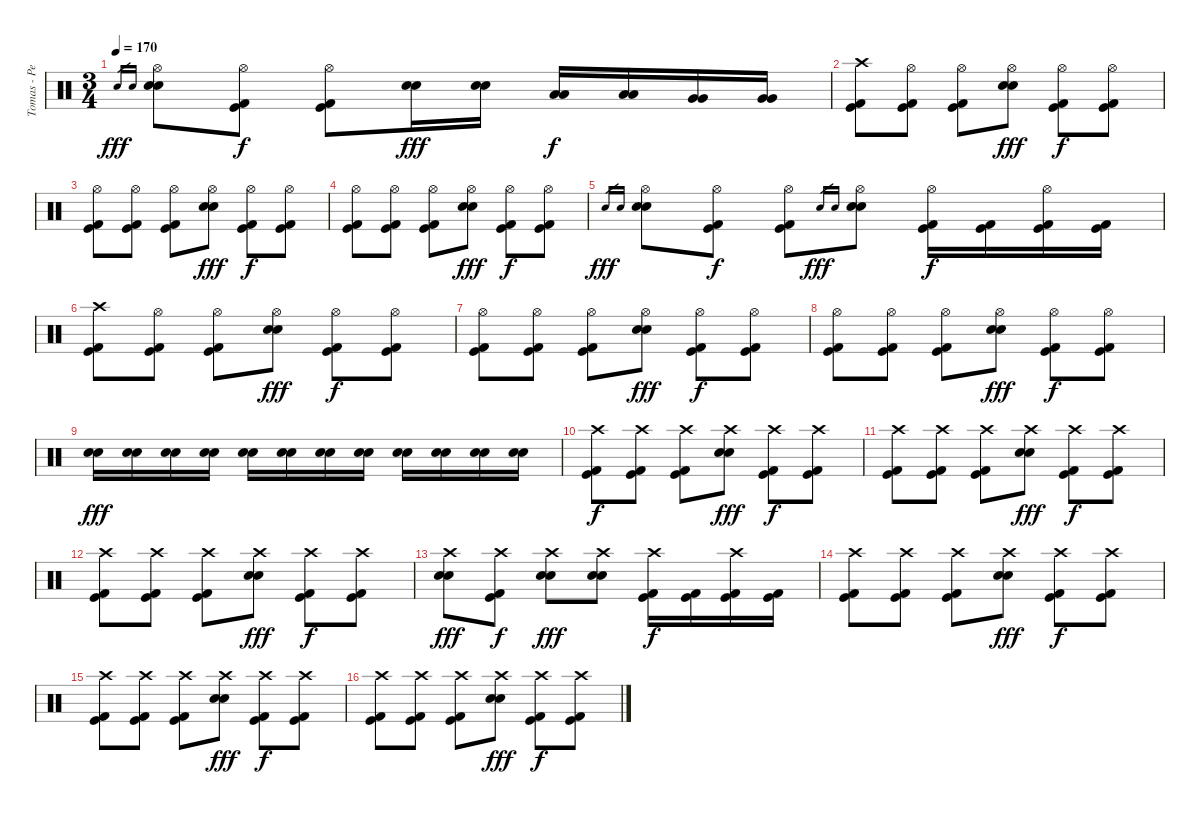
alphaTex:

\track ("Tomas - Percussions" "Tomas - Pe") {instrument percussion}
\staff {score}
\articulation defaults
\ts (3 4)
\tempo 170
\clef neutral
\ks c "Electric Snare (hit)".16{gr dy fff} "Electric Snare (hit)".16{gr}
("Hi-Hat (open)" "Electric Snare (hit)" "Electric Snare (hit)").8 ("Hi-Hat (open)" "Kick (hit)" "Kick (hit) 2").8{dy f} ("Hi-Hat (open)" "Kick (hit)" "Kick (hit) 2").8 ("Electric Snare (hit)" "Electric Snare (hit)").16{dy fff} ("Electric Snare (hit)" "Electric Snare (hit)").16 ("Low Tom (hit)" "Low Tom (hit)").16{dy f} ("Low Tom (hit)" "Low Tom (hit)").16 ("Very Low Tom (hit)" "Very Low Tom (hit)").16 ("Very Low Tom (hit)" "Very Low Tom (hit)").16 |
("Crash high (hit)" "Kick (hit)" "Kick (hit) 2").8 ("Hi-Hat (open)" "Kick (hit)" "Kick (hit) 2").8 ("Hi-Hat (open)" "Kick (hit)" "Kick (hit) 2").8 ("Hi-Hat (open)" "Electric Snare (hit)" "Electric Snare (hit)").8{dy fff} ("Hi-Hat (open)" "Kick (hit)" "Kick (hit) 2").8{dy f} ("Hi-Hat (open)" "Kick (hit)" "Kick (hit) 2").8 |
("Hi-Hat (open)" "Kick (hit)" "Kick (hit) 2").8 ("Hi-Hat (open)" "Kick (hit)" "Kick (hit) 2").8 ("Hi-Hat (open)" "Kick (hit)" "Kick (hit) 2").8 ("Hi-Hat (open)" "Electric Snare (hit)" "Electric Snare (hit)").8{dy fff} ("Hi-Hat (open)" "Kick (hit)" "Kick (hit) 2").8{dy f} ("Hi-Hat (open)" "Kick (hit)" "Kick (hit) 2").8 |
("Hi-Hat (open)" "Kick (hit)" "Kick (hit) 2").8 ("Hi-Hat (open)" "Kick (hit)" "Kick (hit) 2").8 ("Hi-Hat (open)" "Kick (hit)" "Kick (hit) 2").8 ("Hi-Hat (open)" "Electric Snare (hit)" "Electric Snare (hit)").8{dy fff} ("Hi-Hat (open)" "Kick (hit)" "Kick (hit) 2").8{dy f} ("Hi-Hat (open)" "Kick (hit)" "Kick (hit) 2").8 |
"Electric Snare (hit)".16{gr dy fff} "Electric Snare (hit)".16{gr} ("Hi-Hat (open)" "Electric Snare (hit)" "Electric Snare (hit)").8 ("Hi-Hat (open)" "Kick (hit)" "Kick (hit) 2").8{dy f} ("Hi-Hat (open)" "Kick (hit)" "Kick (hit) 2").8 "Electric Snare (hit)".16{gr dy fff} "Electric Snare (hit)".16{gr} ("Hi-Hat (open)" "Electric Snare (hit)" "Electric Snare (hit)").8 ("Hi-Hat (open)" "Kick (hit)" "Kick (hit) 2").16{dy f} ("Kick (hit)" "Kick (hit) 2").16 ("Hi-Hat (open)" "Kick (hit)" "Kick (hit) 2").16 ("Kick (hit)" "Kick (hit) 2").16 |
("Crash high (hit)" "Kick (hit)" "Kick (hit) 2").8 ("Hi-Hat (open)" "Kick (hit)" "Kick (hit) 2").8 ("Hi-Hat (open)" "Kick (hit)" "Kick (hit) 2").8 ("Hi-Hat (open)" "Electric Snare (hit)" "Electric Snare (hit)").8{dy fff} ("Hi-Hat (open)" "Kick (hit)" "Kick (hit) 2").8{dy f} ("Hi-Hat (open)" "Kick (hit)" "Kick (hit) 2").8 |
("Hi-Hat (open)" "Kick (hit)" "Kick (hit) 2").8 ("Hi-Hat (open)" "Kick (hit)" "Kick (hit) 2").8 ("Hi-Hat (open)" "Kick (hit)" "Kick (hit) 2").8 ("Hi-Hat (open)" "Electric Snare (hit)" "Electric Snare (hit)").8{dy fff} ("Hi-Hat (open)" "Kick (hit)" "Kick (hit) 2").8{dy f} ("Hi-Hat (open)" "Kick (hit)" "Kick (hit) 2").8 |
("Hi-Hat (open)" "Kick (hit)" "Kick (hit) 2").8 ("Hi-Hat (open)" "Kick (hit)" "Kick (hit) 2").8 ("Hi-Hat (open)" "Kick (hit)" "Kick (hit) 2").8 ("Hi-Hat (open)" "Electric Snare (hit)" "Electric Snare (hit)").8{dy fff} ("Hi-Hat (open)" "Kick (hit)" "Kick (hit) 2").8{dy f} ("Hi-Hat (open)" "Kick (hit)" "Kick (hit) 2").8 |
("Electric Snare (hit)" "Electric Snare (hit)").16{dy fff} ("Electric Snare (hit)" "Electric Snare (hit)").16 ("Electric Snare (hit)" "Electric Snare (hit)").16 ("Electric Snare (hit)" "Electric Snare (hit)").16 ("Electric Snare (hit)" "Electric Snare (hit)").16 ("Electric Snare (hit)" "Electric Snare (hit)").16 ("Electric Snare (hit)" "Electric Snare (hit)").16 ("Electric Snare (hit)" "Electric Snare (hit)").16 ("Electric Snare (hit)" "Electric Snare (hit)").16 ("Electric Snare (hit)" "Electric Snare (hit)").16 ("Electric Snare (hit)" "Electric Snare (hit)").16 ("Electric Snare (hit)" "Electric Snare (hit)").16 |
("Crash high (hit)" "Kick (hit)" "Kick (hit) 2").8{dy f} ("Crash high (hit)" "Kick (hit)" "Kick (hit) 2").8 ("Crash high (hit)" "Kick (hit)" "Kick (hit) 2").8 ("Crash high (hit)" "Electric Snare (hit)" "Electric Snare (hit)").8{dy fff} ("Crash high (hit)" "Kick (hit)" "Kick (hit) 2").8{dy f} ("Crash high (hit)" "Kick (hit)" "Kick (hit) 2").8 |
("Crash high (hit)" "Kick (hit)" "Kick (hit) 2").8 ("Crash high (hit)" "Kick (hit)" "Kick (hit) 2").8 ("Crash high (hit)" "Kick (hit)" "Kick (hit) 2").8 ("Crash high (hit)" "Electric Snare (hit)" "Electric Snare (hit)").8{dy fff} ("Crash high (hit)" "Kick (hit)" "Kick (hit) 2").8{dy f} ("Crash high (hit)" "Kick (hit)" "Kick (hit) 2").8 |
("Crash high (hit)" "Kick (hit)" "Kick (hit) 2").8 ("Crash high (hit)" "Kick (hit)" "Kick (hit) 2").8 ("Crash high (hit)" "Kick (hit)" "Kick (hit) 2").8 ("Crash high (hit)" "Electric Snare (hit)" "Electric Snare (hit)").8{dy fff} ("Crash high (hit)" "Kick (hit)" "Kick (hit) 2").8{dy f} ("Crash high (hit)" "Kick (hit)" "Kick (hit) 2").8 |
("Crash high (hit)" "Electric Snare (hit)" "Electric Snare (hit)").8{dy fff} ("Crash high (hit)" "Kick (hit)" "Kick (hit) 2").8{dy f} ("Crash high (hit)" "Electric Snare (hit)" "Electric Snare (hit)").8{dy fff} ("Crash high (hit)" "Electric Snare (hit)" "Electric Snare (hit)").8 ("Crash high (hit)" "Kick (hit)" "Kick (hit) 2").16{dy f} ("Kick (hit)" "Kick (hit) 2").16 ("Crash high (hit)" "Kick (hit)" "Kick (hit) 2").16 ("Kick (hit)" "Kick (hit) 2").16 |
("Crash high (hit)" "Kick (hit)" "Kick (hit) 2").8 ("Crash high (hit)" "Kick (hit)" "Kick (hit) 2").8 ("Crash high (hit)" "Kick (hit)" "Kick (hit) 2").8 ("Crash high (hit)" "Electric Snare (hit)" "Electric Snare (hit)").8{dy fff} ("Crash high (hit)" "Kick (hit)" "Kick (hit) 2").8{dy f} ("Crash high (hit)" "Kick (hit)" "Kick (hit) 2").8 |
("Crash high (hit)" "Kick (hit)" "Kick (hit) 2").8 ("Crash high (hit)" "Kick (hit)" "Kick (hit) 2").8 ("Crash high (hit)" "Kick (hit)" "Kick (hit) 2").8 ("Crash high (hit)" "Electric Snare (hit)" "Electric Snare (hit)").8{dy fff} ("Crash high (hit)" "Kick (hit)" "Kick (hit) 2").8{dy f} ("Crash high (hit)" "Kick (hit)" "Kick (hit) 2").8 |
("Crash high (hit)" "Kick (hit)" "Kick (hit) 2").8 ("Crash high (hit)" "Kick (hit)" "Kick (hit) 2").8 ("Crash high (hit)" "Kick (hit)" "Kick (hit) 2").8 ("Crash high (hit)" "Electric Snare (hit)" "Electric Snare (hit)").8{dy fff} ("Crash high (hit)" "Kick (hit)" "Kick (hit) 2").8{dy f} ("Crash high (hit)" "Kick (hit)" "Kick (hit) 2").8
